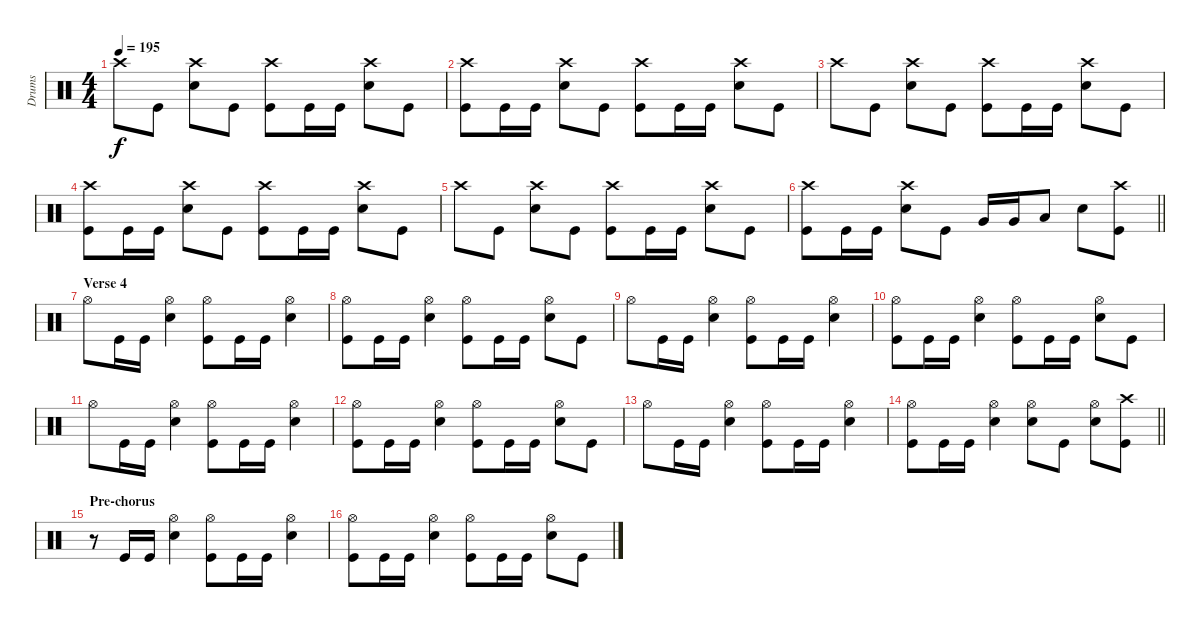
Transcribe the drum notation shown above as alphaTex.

\track ("Drums" "Drums") {instrument percussion}
\staff {score}
\articulation defaults
\ts (4 4)
\tempo 195
\clef neutral
\ks c "Crash high (hit)".8{dy f} "Kick (hit)".8
("Snare (hit) 2" "Crash high (hit)").8 "Kick (hit)".8 ("Kick (hit)" "Crash high (hit)").8 "Kick (hit)".16 "Kick (hit)".16 ("Snare (hit) 2" "Crash high (hit)").8 "Kick (hit)".8 |
("Kick (hit)" "Crash high (hit)").8 "Kick (hit)".16 "Kick (hit)".16 ("Snare (hit) 2" "Crash high (hit)").8 "Kick (hit)".8 ("Kick (hit)" "Crash high (hit)").8 "Kick (hit)".16 "Kick (hit)".16 ("Snare (hit) 2" "Crash high (hit)").8 "Kick (hit)".8 |
"Crash high (hit)".8 "Kick (hit)".8 ("Snare (hit) 2" "Crash high (hit)").8 "Kick (hit)".8 ("Kick (hit)" "Crash high (hit)").8 "Kick (hit)".16 "Kick (hit)".16 ("Snare (hit) 2" "Crash high (hit)").8 "Kick (hit)".8 |
("Kick (hit)" "Crash high (hit)").8 "Kick (hit)".16 "Kick (hit)".16 ("Snare (hit) 2" "Crash high (hit)").8 "Kick (hit)".8 ("Kick (hit)" "Crash high (hit)").8 "Kick (hit)".16 "Kick (hit)".16 ("Snare (hit) 2" "Crash high (hit)").8 "Kick (hit)".8 |
"Crash high (hit)".8 "Kick (hit)".8 ("Snare (hit) 2" "Crash high (hit)").8 "Kick (hit)".8 ("Kick (hit)" "Crash high (hit)").8 "Kick (hit)".16 "Kick (hit)".16 ("Snare (hit) 2" "Crash high (hit)").8 "Kick (hit)".8 |
\barLineRight lightlight
("Kick (hit)" "Crash high (hit)").8 "Kick (hit)".16 "Kick (hit)".16 ("Snare (hit) 2" "Crash high (hit)").8 "Kick (hit)".8 "Very Low Tom (hit)".16 "Very Low Tom (hit)".16 "Low Floor Tom (hit)".8 "Snare (hit) 2".8 ("Kick (hit)" "Crash high (hit)").8 |
\section ("" "Verse 4")
"Hi-Hat (open)".8 "Kick (hit)".16 "Kick (hit)".16 ("Snare (hit) 2" "Hi-Hat (open)").4 ("Kick (hit)" "Hi-Hat (open)").8 "Kick (hit)".16 "Kick (hit)".16 ("Snare (hit) 2" "Hi-Hat (open)").4 |
("Kick (hit)" "Hi-Hat (open)").8 "Kick (hit)".16 "Kick (hit)".16 ("Snare (hit) 2" "Hi-Hat (open)").4 ("Kick (hit)" "Hi-Hat (open)").8 "Kick (hit)".16 "Kick (hit)".16 ("Snare (hit) 2" "Hi-Hat (open)").8 "Kick (hit)".8 |
"Hi-Hat (open)".8 "Kick (hit)".16 "Kick (hit)".16 ("Snare (hit) 2" "Hi-Hat (open)").4 ("Kick (hit)" "Hi-Hat (open)").8 "Kick (hit)".16 "Kick (hit)".16 ("Snare (hit) 2" "Hi-Hat (open)").4 |
("Kick (hit)" "Hi-Hat (open)").8 "Kick (hit)".16 "Kick (hit)".16 ("Snare (hit) 2" "Hi-Hat (open)").4 ("Kick (hit)" "Hi-Hat (open)").8 "Kick (hit)".16 "Kick (hit)".16 ("Snare (hit) 2" "Hi-Hat (open)").8 "Kick (hit)".8 |
"Hi-Hat (open)".8 "Kick (hit)".16 "Kick (hit)".16 ("Snare (hit) 2" "Hi-Hat (open)").4 ("Kick (hit)" "Hi-Hat (open)").8 "Kick (hit)".16 "Kick (hit)".16 ("Snare (hit) 2" "Hi-Hat (open)").4 |
("Kick (hit)" "Hi-Hat (open)").8 "Kick (hit)".16 "Kick (hit)".16 ("Snare (hit) 2" "Hi-Hat (open)").4 ("Kick (hit)" "Hi-Hat (open)").8 "Kick (hit)".16 "Kick (hit)".16 ("Snare (hit) 2" "Hi-Hat (open)").8 "Kick (hit)".8 |
"Hi-Hat (open)".8 "Kick (hit)".16 "Kick (hit)".16 ("Snare (hit) 2" "Hi-Hat (open)").4 ("Kick (hit)" "Hi-Hat (open)").8 "Kick (hit)".16 "Kick (hit)".16 ("Snare (hit) 2" "Hi-Hat (open)").4 |
\barLineRight lightlight
("Kick (hit)" "Hi-Hat (open)").8 "Kick (hit)".16 "Kick (hit)".16 ("Snare (hit) 2" "Hi-Hat (open)").4 ("Hi-Hat (open)" "Snare (hit) 2").8 "Kick (hit)".8 ("Snare (hit) 2" "Hi-Hat (open)").8 ("Kick (hit)" "Crash high (hit)").8 |
\section ("" "Pre-chorus")
r.8 "Kick (hit)".16 "Kick (hit)".16 ("Snare (hit) 2" "Hi-Hat (open)").4 ("Kick (hit)" "Hi-Hat (open)").8 "Kick (hit)".16 "Kick (hit)".16 ("Snare (hit) 2" "Hi-Hat (open)").4 |
("Kick (hit)" "Hi-Hat (open)").8 "Kick (hit)".16 "Kick (hit)".16 ("Snare (hit) 2" "Hi-Hat (open)").4 ("Kick (hit)" "Hi-Hat (open)").8 "Kick (hit)".16 "Kick (hit)".16 ("Snare (hit) 2" "Hi-Hat (open)").8 "Kick (hit)".8
